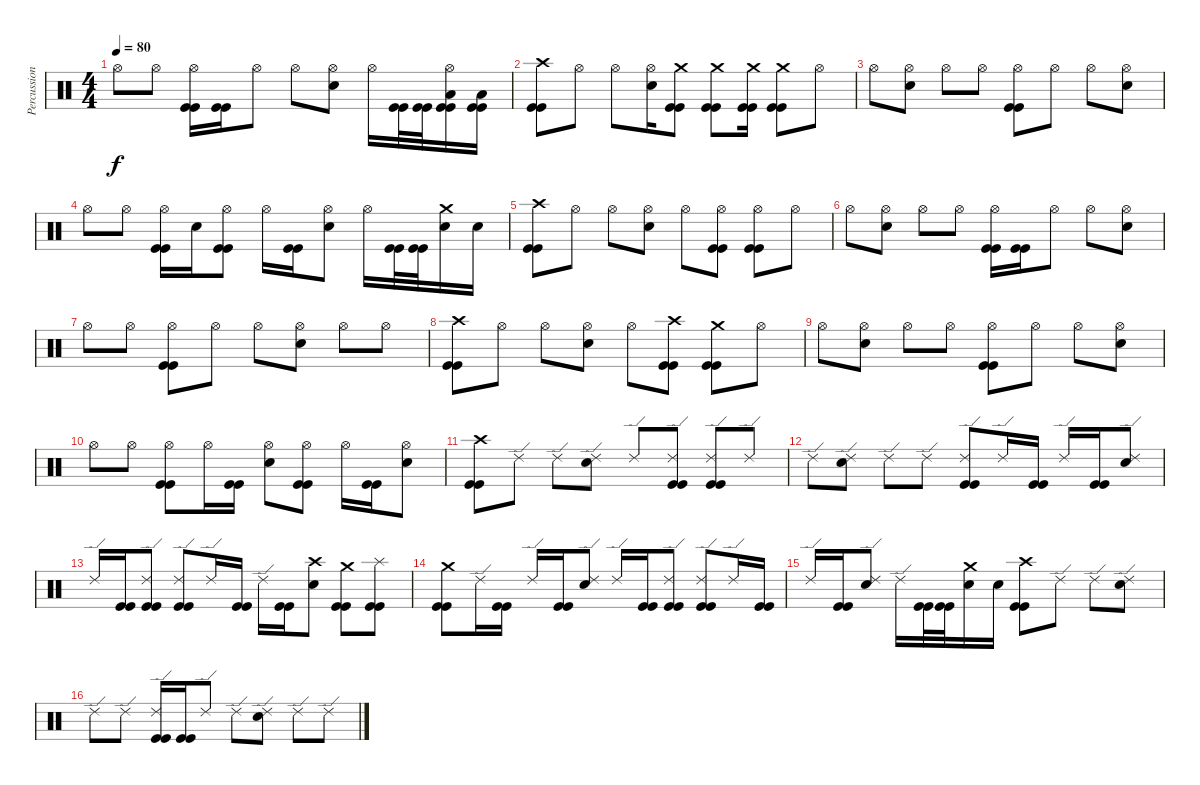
\track ("Percussions" "Percussion") {instrument percussion}
\staff {score}
\articulation defaults
\ts (4 4)
\tempo 80
\clef neutral
\ks c "Hi-Hat (open)".8{dy f} "Hi-Hat (open)".8
("Kick (hit)" "Kick (hit)" "Hi-Hat (open)").16 ("Kick (hit)" "Kick (hit)").16 "Hi-Hat (open)".8 "Hi-Hat (open)".8 ("Electric Snare (hit)" "Hi-Hat (open)").8 "Hi-Hat (open)".16 ("Kick (hit)" "Kick (hit)").32 ("Kick (hit)" "Kick (hit)").32 ("Kick (hit)" "Kick (hit)" "Low Tom (hit)" "Hi-Hat (open)").16 ("Kick (hit)" "Kick (hit)" "Low Tom (hit)").16 |
("Kick (hit)" "Kick (hit)" "Crash high (hit)").8 "Hi-Hat (open)".8 "Hi-Hat (open)".8 ("Electric Snare (hit)" "Hi-Hat (open)").16 ("Kick (hit)" "Kick (hit)" "Crash medium (hit)").8 ("Kick (hit)" "Kick (hit)" "Crash medium (hit)").8 ("Kick (hit)" "Kick (hit)" "Crash medium (hit)").16 ("Kick (hit)" "Kick (hit)" "Crash medium (hit)").8 "Hi-Hat (open)".8 |
"Hi-Hat (open)".8 ("Electric Snare (hit)" "Hi-Hat (open)").8 "Hi-Hat (open)".8 "Hi-Hat (open)".8 ("Kick (hit)" "Kick (hit)" "Hi-Hat (open)").8 "Hi-Hat (open)".8 "Hi-Hat (open)".8 ("Electric Snare (hit)" "Hi-Hat (open)").8 |
"Hi-Hat (open)".8 "Hi-Hat (open)".8 ("Kick (hit)" "Kick (hit)" "Hi-Hat (open)").16 "Electric Snare (hit)".16 ("Kick (hit)" "Kick (hit)" "Hi-Hat (open)").8 "Hi-Hat (open)".16 ("Kick (hit)" "Kick (hit)").16 ("Electric Snare (hit)" "Hi-Hat (open)").8 "Hi-Hat (open)".16 ("Kick (hit)" "Kick (hit)").32 ("Kick (hit)" "Kick (hit)").32 ("Electric Snare (hit)" "Crash medium (hit)").16 "Electric Snare (hit)".16 |
("Kick (hit)" "Kick (hit)" "Crash high (hit)").8 "Hi-Hat (open)".8 "Hi-Hat (open)".8 ("Electric Snare (hit)" "Hi-Hat (open)").8 "Hi-Hat (open)".8 ("Kick (hit)" "Kick (hit)" "Hi-Hat (open)").8 ("Kick (hit)" "Kick (hit)" "Hi-Hat (open)").8 "Hi-Hat (open)".8 |
"Hi-Hat (open)".8 ("Electric Snare (hit)" "Hi-Hat (open)").8 "Hi-Hat (open)".8 "Hi-Hat (open)".8 ("Kick (hit)" "Kick (hit)" "Hi-Hat (open)").16 ("Kick (hit)" "Kick (hit)").16 "Hi-Hat (open)".8 "Hi-Hat (open)".8 ("Electric Snare (hit)" "Hi-Hat (open)").8 |
"Hi-Hat (open)".8 "Hi-Hat (open)".8 ("Kick (hit)" "Kick (hit)" "Hi-Hat (open)").8 "Hi-Hat (open)".8 "Hi-Hat (open)".8 ("Electric Snare (hit)" "Hi-Hat (open)").8 "Hi-Hat (open)".8 "Hi-Hat (open)".8 |
("Kick (hit)" "Kick (hit)" "Crash high (hit)").8 "Hi-Hat (open)".8 "Hi-Hat (open)".8 ("Electric Snare (hit)" "Hi-Hat (open)").8 "Hi-Hat (open)".8 ("Kick (hit)" "Kick (hit)" "Crash high (hit)").8 ("Kick (hit)" "Kick (hit)" "Crash medium (hit)").8 "Hi-Hat (open)".8 |
"Hi-Hat (open)".8 ("Electric Snare (hit)" "Hi-Hat (open)").8 "Hi-Hat (open)".8 "Hi-Hat (open)".8 ("Kick (hit)" "Kick (hit)" "Hi-Hat (open)").8 "Hi-Hat (open)".8 "Hi-Hat (open)".8 ("Electric Snare (hit)" "Hi-Hat (open)").8 |
"Hi-Hat (open)".8 "Hi-Hat (open)".8 ("Kick (hit)" "Kick (hit)" "Hi-Hat (open)").8 "Hi-Hat (open)".16 ("Kick (hit)" "Kick (hit)").16 ("Electric Snare (hit)" "Hi-Hat (open)").8 ("Kick (hit)" "Kick (hit)" "Hi-Hat (open)").8 "Hi-Hat (open)".16 ("Kick (hit)" "Kick (hit)").16 ("Electric Snare (hit)" "Hi-Hat (open)").8 |
("Kick (hit)" "Kick (hit)" "Crash high (hit)").8 "Ride (edge) 2".8 "Ride (edge) 2".8 ("Electric Snare (hit)" "Ride (edge) 2").8 "Ride (edge) 2".8 ("Kick (hit)" "Kick (hit)" "Ride (edge) 2").8 ("Kick (hit)" "Kick (hit)" "Ride (edge) 2").8 "Ride (edge) 2".8 |
"Ride (edge) 2".8 ("Electric Snare (hit)" "Ride (edge) 2").8 "Ride (edge) 2".8 "Ride (edge) 2".8 ("Kick (hit)" "Kick (hit)" "Ride (edge) 2").8 "Ride (edge) 2".16 ("Kick (hit)" "Kick (hit)").16 "Ride (edge) 2".16 ("Kick (hit)" "Kick (hit)").16 ("Electric Snare (hit)" "Ride (edge) 2").8 |
"Ride (edge) 2".16 ("Kick (hit)" "Kick (hit)").16 ("Kick (hit)" "Kick (hit)" "Ride (edge) 2").8 ("Kick (hit)" "Kick (hit)" "Ride (edge) 2").8 "Ride (edge) 2".16 ("Kick (hit)" "Kick (hit)").16 "Ride (edge) 2".16 ("Kick (hit)" "Kick (hit)").16 ("Electric Snare (hit)" "Crash high (hit)").8 ("Kick (hit)" "Kick (hit)" "Crash medium (hit)").8 ("Kick (hit)" "Kick (hit)" "Splash (hit)").8 |
("Kick (hit)" "Kick (hit)" "Crash medium (hit)").8 "Ride (edge) 2".16 ("Kick (hit)" "Kick (hit)").16 "Ride (edge) 2".16 ("Kick (hit)" "Kick (hit)").16 ("Electric Snare (hit)" "Ride (edge) 2").8 "Ride (edge) 2".16 ("Kick (hit)" "Kick (hit)").16 ("Kick (hit)" "Kick (hit)" "Ride (edge) 2").8 ("Kick (hit)" "Kick (hit)" "Ride (edge) 2").8 "Ride (edge) 2".16 ("Kick (hit)" "Kick (hit)").16 |
"Ride (edge) 2".16 ("Kick (hit)" "Kick (hit)").16 ("Electric Snare (hit)" "Ride (edge) 2").8 "Ride (edge) 2".16 ("Kick (hit)" "Kick (hit)").32 ("Kick (hit)" "Kick (hit)").32 ("Electric Snare (hit)" "Crash medium (hit)").16 "Electric Snare (hit)".16 ("Kick (hit)" "Kick (hit)" "Crash high (hit)").8 "Ride (edge) 2".8 "Ride (edge) 2".8 ("Electric Snare (hit)" "Ride (edge) 2").8 |
"Ride (edge) 2".8 "Ride (edge) 2".8 ("Kick (hit)" "Kick (hit)" "Ride (edge) 2").16 ("Kick (hit)" "Kick (hit)").16 "Ride (edge) 2".8 "Ride (edge) 2".8 ("Electric Snare (hit)" "Ride (edge) 2").8 "Ride (edge) 2".8 "Ride (edge) 2".8
